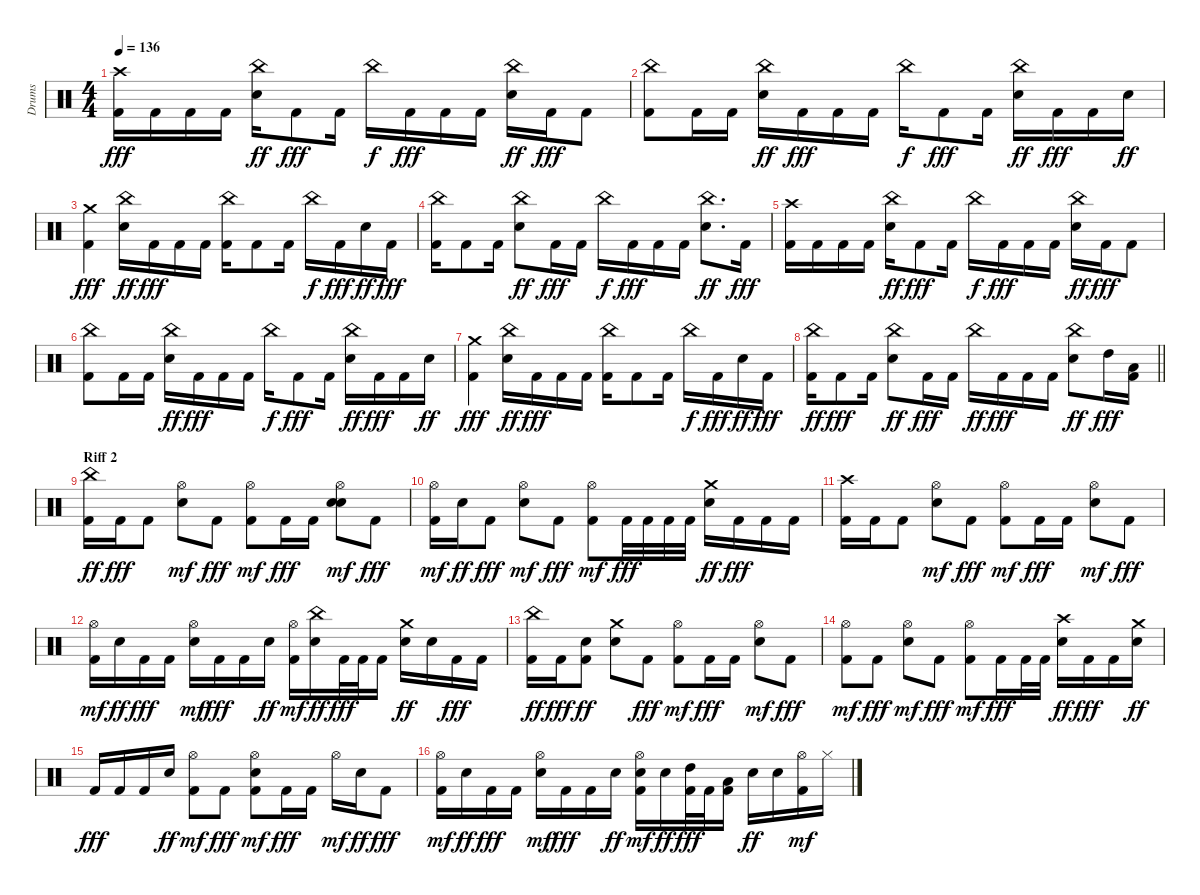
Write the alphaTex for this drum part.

\track ("Drums" "Drums") {instrument percussion}
\staff {score}
\articulation defaults
\ts (4 4)
\tempo 136
\clef neutral
\ks c
("Kick (hit) 2" "Crash high (hit)").16{dy fff} "Kick (hit) 2".16 "Kick (hit) 2".16 "Kick (hit) 2".16 ("Snare (hit) 2" "China (hit)").16{dy ff} "Kick (hit) 2".8{dy fff} "Kick (hit) 2".16 "China (hit)".16{dy f} "Kick (hit) 2".16{dy fff} "Kick (hit) 2".16 "Kick (hit) 2".16 ("Snare (hit) 2" "China (hit)").16{dy ff} "Kick (hit) 2".16{dy fff} "Kick (hit) 2".8 |
("Kick (hit) 2" "China (hit)").8 "Kick (hit) 2".16 "Kick (hit) 2".16 ("Snare (hit) 2" "China (hit)").16{dy ff} "Kick (hit) 2".16{dy fff} "Kick (hit) 2".16 "Kick (hit) 2".16 "China (hit)".16{dy f} "Kick (hit) 2".8{dy fff} "Kick (hit) 2".16 ("Snare (hit) 2" "China (hit)").16{dy ff} "Kick (hit) 2".16{dy fff} "Kick (hit) 2".16 "Snare (hit) 2".16{dy ff} |
("Kick (hit) 2" "Crash medium (hit)").4{dy fff} ("Snare (hit) 2" "China (hit)").16{dy ff} "Kick (hit) 2".16{dy fff} "Kick (hit) 2".16 "Kick (hit) 2".16 ("Kick (hit) 2" "China (hit)").16 "Kick (hit) 2".8 "Kick (hit) 2".16 "China (hit)".16{dy f} "Kick (hit) 2".16{dy fff} "Snare (hit) 2".16{dy ff} "Kick (hit) 2".16{dy fff} |
("Kick (hit) 2" "China (hit)").16 "Kick (hit) 2".8 "Kick (hit) 2".16 ("Snare (hit) 2" "China (hit)").8{dy ff} "Kick (hit) 2".16{dy fff} "Kick (hit) 2".16 "China (hit)".16{dy f} "Kick (hit) 2".16{dy fff} "Kick (hit) 2".16 "Kick (hit) 2".16 ("Snare (hit) 2" "China (hit)").8{d dy ff} "Kick (hit) 2".16{dy fff} |
("Kick (hit) 2" "Crash high (hit)").16 "Kick (hit) 2".16 "Kick (hit) 2".16 "Kick (hit) 2".16 ("Snare (hit) 2" "China (hit)").16{dy ff} "Kick (hit) 2".8{dy fff} "Kick (hit) 2".16 "China (hit)".16{dy f} "Kick (hit) 2".16{dy fff} "Kick (hit) 2".16 "Kick (hit) 2".16 ("Snare (hit) 2" "China (hit)").16{dy ff} "Kick (hit) 2".16{dy fff} "Kick (hit) 2".8 |
("Kick (hit) 2" "China (hit)").8 "Kick (hit) 2".16 "Kick (hit) 2".16 ("Snare (hit) 2" "China (hit)").16{dy ff} "Kick (hit) 2".16{dy fff} "Kick (hit) 2".16 "Kick (hit) 2".16 "China (hit)".16{dy f} "Kick (hit) 2".8{dy fff} "Kick (hit) 2".16 ("Snare (hit) 2" "China (hit)").16{dy ff} "Kick (hit) 2".16{dy fff} "Kick (hit) 2".16 "Snare (hit) 2".16{dy ff} |
("Kick (hit) 2" "Crash medium (hit)").4{dy fff} ("Snare (hit) 2" "China (hit)").16{dy ff} "Kick (hit) 2".16{dy fff} "Kick (hit) 2".16 "Kick (hit) 2".16 ("Kick (hit) 2" "China (hit)").16 "Kick (hit) 2".8 "Kick (hit) 2".16 "China (hit)".16{dy f} "Kick (hit) 2".16{dy fff} "Snare (hit) 2".16{dy ff} "Kick (hit) 2".16{dy fff} |
\barLineRight lightlight
("Kick (hit) 2" "China (hit)").16{dy ff} "Kick (hit) 2".8{dy fff} "Kick (hit) 2".16 ("Snare (hit) 2" "China (hit)").8{dy ff} "Kick (hit) 2".16{dy fff} "Kick (hit) 2".16 "China (hit)".16{dy ff} "Kick (hit) 2".16{dy fff} "Kick (hit) 2".16 "Kick (hit) 2".16 ("Snare (hit) 2" "China (hit)").8{dy ff} "High Tom (hit)".16{dy fff} ("Kick (hit) 2" "Low Tom (hit)").16 |
\section ("" "Riff 2")
("Kick (hit) 2" "China (hit)").16{dy ff} "Kick (hit) 2".16{dy fff} "Kick (hit) 2".8 ("Snare (hit) 2" "Hi-Hat (open)").8{dy mf} "Kick (hit) 2".8{dy fff} ("Kick (hit) 2" "Hi-Hat (open)").8{dy mf} "Kick (hit) 2".16{dy fff} "Kick (hit) 2".16 ("Snare (hit) 2" "Snare (hit) 2" "Hi-Hat (open)").8{dy mf} "Kick (hit) 2".8{dy fff} |
("Kick (hit) 2" "Hi-Hat (open)").16{dy mf} "Snare (hit) 2".16{dy ff} "Kick (hit) 2".8{dy fff} ("Snare (hit) 2" "Hi-Hat (open)").8{dy mf} "Kick (hit) 2".8{dy fff} ("Kick (hit) 2" "Hi-Hat (open)").8{dy mf} "Kick (hit) 2".32{dy fff} "Kick (hit) 2".32 "Kick (hit) 2".32 "Kick (hit) 2".32 ("Snare (hit) 2" "Crash medium (hit)").16{dy ff} "Kick (hit) 2".16{dy fff} "Kick (hit) 2".16 "Kick (hit) 2".16 |
("Kick (hit) 2" "Crash high (hit)").16 "Kick (hit) 2".16 "Kick (hit) 2".8 ("Snare (hit) 2" "Hi-Hat (open)").8{dy mf} "Kick (hit) 2".8{dy fff} ("Kick (hit) 2" "Hi-Hat (open)").8{dy mf} "Kick (hit) 2".16{dy fff} "Kick (hit) 2".16 ("Snare (hit) 2" "Hi-Hat (open)").8{dy mf} "Kick (hit) 2".8{dy fff} |
("Kick (hit) 2" "Hi-Hat (open)").16{dy mf} "Snare (hit) 2".16{dy ff} "Kick (hit) 2".16{dy fff} "Kick (hit) 2".16 ("Snare (hit) 2" "Hi-Hat (open)").16{dy mf} "Kick (hit) 2".16{dy fff} "Kick (hit) 2".16 "Snare (hit) 2".16{dy ff} ("Kick (hit) 2" "Hi-Hat (open)").16{dy mf} ("Snare (hit) 2" "China (hit)").16{dy ff} "Kick (hit) 2".32{dy fff} "Kick (hit) 2".32 "Kick (hit) 2".16 ("Snare (hit) 2" "Crash medium (hit)").16{dy ff} "Snare (hit) 2".16 "Kick (hit) 2".16{dy fff} "Kick (hit) 2".16 |
("Kick (hit) 2" "China (hit)").16{dy ff} "Kick (hit) 2".16{dy fff} ("Kick (hit) 2" "Snare (hit) 2").8{dy ff} ("Snare (hit) 2" "Crash medium (hit)").8 "Kick (hit) 2".8{dy fff} ("Kick (hit) 2" "Hi-Hat (open)").8{dy mf} "Kick (hit) 2".16{dy fff} "Kick (hit) 2".16 ("Snare (hit) 2" "Hi-Hat (open)").8{dy mf} "Kick (hit) 2".8{dy fff} |
("Kick (hit) 2" "Hi-Hat (open)").8{dy mf} "Kick (hit) 2".8{dy fff} ("Snare (hit) 2" "Hi-Hat (open)").8{dy mf} "Kick (hit) 2".8{dy fff} ("Kick (hit) 2" "Hi-Hat (open)").8{dy mf} "Kick (hit) 2".16{dy fff} "Kick (hit) 2".32 "Kick (hit) 2".32 ("Snare (hit) 2" "Crash high (hit)").16{dy ff} "Kick (hit) 2".16{dy fff} "Kick (hit) 2".16 ("Snare (hit) 2" "Crash medium (hit)").16{dy ff} |
"Kick (hit) 2".16{dy fff} "Kick (hit) 2".16 "Kick (hit) 2".16 "Snare (hit) 2".16{dy ff} ("Kick (hit) 2" "Hi-Hat (open)").8{dy mf} "Kick (hit) 2".8{dy fff} ("Kick (hit) 2" "Snare (hit) 2" "Hi-Hat (open)").8{dy mf} "Kick (hit) 2".16{dy fff} "Kick (hit) 2".16 "Hi-Hat (open)".16{dy mf} "Snare (hit) 2".16{dy ff} "Kick (hit) 2".8{dy fff} |
("Kick (hit) 2" "Hi-Hat (open)").16{dy mf} "Snare (hit) 2".16{dy ff} "Kick (hit) 2".16{dy fff} "Kick (hit) 2".16 ("Snare (hit) 2" "Hi-Hat (open)").16{dy mf} "Kick (hit) 2".16{dy fff} "Kick (hit) 2".16 "Snare (hit) 2".16{dy ff} ("Kick (hit) 2" "Snare (hit) 2" "Hi-Hat (open)").16{dy mf} "Snare (hit) 2".16{dy ff} ("Kick (hit) 2" "High Tom (hit)").32{dy fff} "Kick (hit) 2".32 ("Kick (hit) 2" "Low Tom (hit)").16 "Snare (hit) 2".16{dy ff} "Snare (hit) 2".16 ("Kick (hit) 2" "Hi-Hat (open)").16{dy mf} "Hi-Hat (closed)".16
